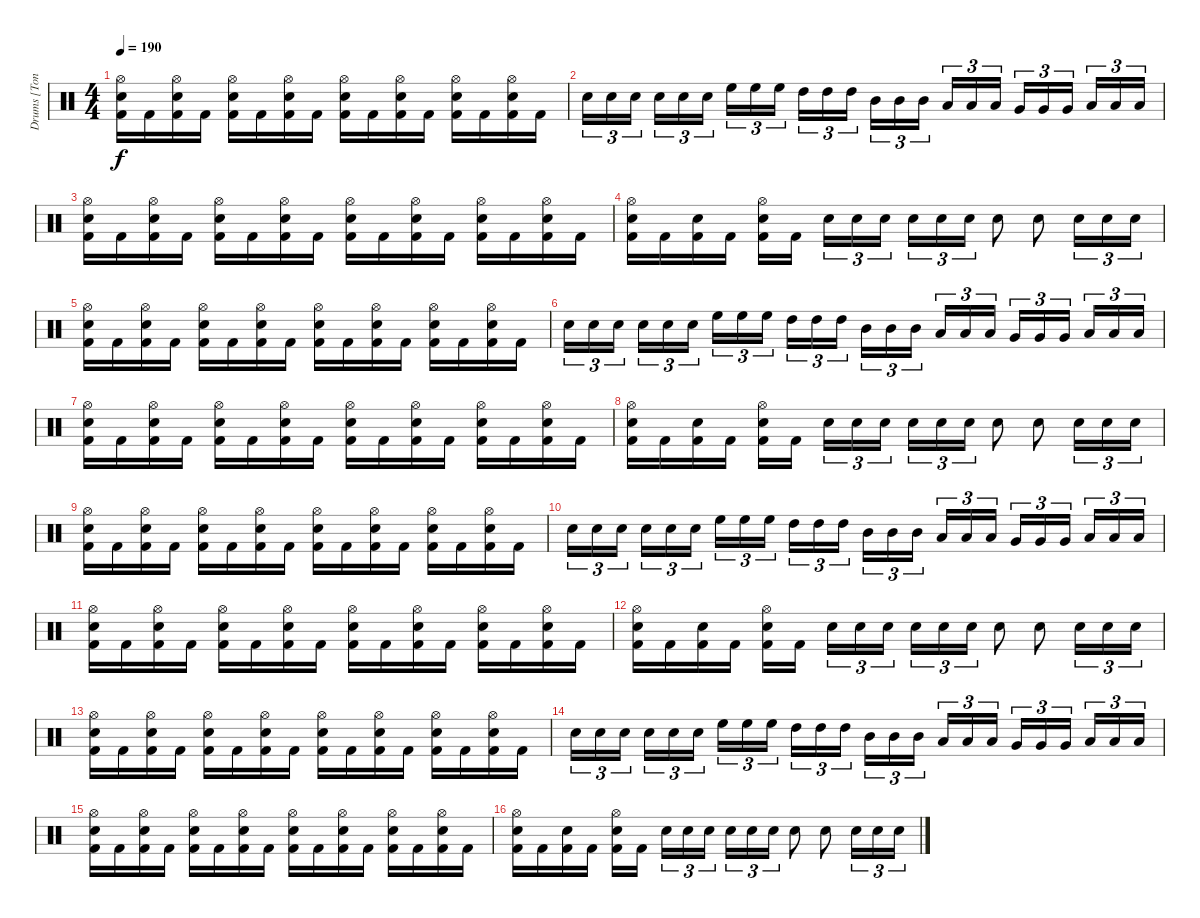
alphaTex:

\track ("Drums [Tony Laureano]" "Drums [Ton") {instrument percussion}
\staff {score}
\articulation defaults
\ts (4 4)
\tempo 190
\clef neutral
\ks c
("Hi-Hat (open)" "Electric Snare (hit)" "Kick (hit) 2").16{dy f} "Kick (hit) 2".16 ("Hi-Hat (open)" "Electric Snare (hit)" "Kick (hit) 2").16 "Kick (hit) 2".16 ("Hi-Hat (open)" "Electric Snare (hit)" "Kick (hit) 2").16 "Kick (hit) 2".16 ("Hi-Hat (open)" "Electric Snare (hit)" "Kick (hit) 2").16 "Kick (hit) 2".16 ("Hi-Hat (open)" "Electric Snare (hit)" "Kick (hit) 2").16 "Kick (hit) 2".16 ("Hi-Hat (open)" "Electric Snare (hit)" "Kick (hit) 2").16 "Kick (hit) 2".16 ("Hi-Hat (open)" "Electric Snare (hit)" "Kick (hit) 2").16 "Kick (hit) 2".16 ("Hi-Hat (open)" "Electric Snare (hit)" "Kick (hit) 2").16 "Kick (hit) 2".16 |
"Electric Snare (hit)".16{tu (3 2)} "Electric Snare (hit)".16{tu (3 2)} "Electric Snare (hit)".16{tu (3 2)} "Electric Snare (hit)".16{tu (3 2)} "Electric Snare (hit)".16{tu (3 2)} "Electric Snare (hit)".16{tu (3 2)} "High Floor Tom (hit)".16{tu (3 2)} "High Floor Tom (hit)".16{tu (3 2)} "High Floor Tom (hit)".16{tu (3 2)} "High Tom (hit)".16{tu (3 2)} "High Tom (hit)".16{tu (3 2)} "High Tom (hit)".16{tu (3 2)} "Mid Tom (hit)".16{tu (3 2)} "Mid Tom (hit)".16{tu (3 2)} "Mid Tom (hit)".16{tu (3 2)} "Low Tom (hit)".16{tu (3 2)} "Low Tom (hit)".16{tu (3 2)} "Low Tom (hit)".16{tu (3 2)} "Very Low Tom (hit)".16{tu (3 2)} "Very Low Tom (hit)".16{tu (3 2)} "Very Low Tom (hit)".16{tu (3 2)} "Low Floor Tom (hit)".16{tu (3 2)} "Low Floor Tom (hit)".16{tu (3 2)} "Low Floor Tom (hit)".16{tu (3 2)} |
("Hi-Hat (open)" "Electric Snare (hit)" "Kick (hit) 2").16 "Kick (hit) 2".16 ("Hi-Hat (open)" "Electric Snare (hit)" "Kick (hit) 2").16 "Kick (hit) 2".16 ("Hi-Hat (open)" "Electric Snare (hit)" "Kick (hit) 2").16 "Kick (hit) 2".16 ("Hi-Hat (open)" "Electric Snare (hit)" "Kick (hit) 2").16 "Kick (hit) 2".16 ("Hi-Hat (open)" "Electric Snare (hit)" "Kick (hit) 2").16 "Kick (hit) 2".16 ("Hi-Hat (open)" "Electric Snare (hit)" "Kick (hit) 2").16 "Kick (hit) 2".16 ("Hi-Hat (open)" "Electric Snare (hit)" "Kick (hit) 2").16 "Kick (hit) 2".16 ("Hi-Hat (open)" "Electric Snare (hit)" "Kick (hit) 2").16 "Kick (hit) 2".16 |
("Hi-Hat (open)" "Electric Snare (hit)" "Kick (hit) 2").16 "Kick (hit) 2".16 ("Electric Snare (hit)" "Kick (hit) 2").16 "Kick (hit) 2".16 ("Hi-Hat (open)" "Electric Snare (hit)" "Kick (hit) 2").16 "Kick (hit) 2".16 "Electric Snare (hit)".16{tu (3 2)} "Electric Snare (hit)".16{tu (3 2)} "Electric Snare (hit)".16{tu (3 2)} "Electric Snare (hit)".16{tu (3 2)} "Electric Snare (hit)".16{tu (3 2)} "Electric Snare (hit)".16{tu (3 2)} "Electric Snare (hit)".8 "Electric Snare (hit)".8 "Electric Snare (hit)".16{tu (3 2)} "Electric Snare (hit)".16{tu (3 2)} "Electric Snare (hit)".16{tu (3 2)} |
("Hi-Hat (open)" "Electric Snare (hit)" "Kick (hit) 2").16 "Kick (hit) 2".16 ("Hi-Hat (open)" "Electric Snare (hit)" "Kick (hit) 2").16 "Kick (hit) 2".16 ("Hi-Hat (open)" "Electric Snare (hit)" "Kick (hit) 2").16 "Kick (hit) 2".16 ("Hi-Hat (open)" "Electric Snare (hit)" "Kick (hit) 2").16 "Kick (hit) 2".16 ("Hi-Hat (open)" "Electric Snare (hit)" "Kick (hit) 2").16 "Kick (hit) 2".16 ("Hi-Hat (open)" "Electric Snare (hit)" "Kick (hit) 2").16 "Kick (hit) 2".16 ("Hi-Hat (open)" "Electric Snare (hit)" "Kick (hit) 2").16 "Kick (hit) 2".16 ("Hi-Hat (open)" "Electric Snare (hit)" "Kick (hit) 2").16 "Kick (hit) 2".16 |
"Electric Snare (hit)".16{tu (3 2)} "Electric Snare (hit)".16{tu (3 2)} "Electric Snare (hit)".16{tu (3 2)} "Electric Snare (hit)".16{tu (3 2)} "Electric Snare (hit)".16{tu (3 2)} "Electric Snare (hit)".16{tu (3 2)} "High Floor Tom (hit)".16{tu (3 2)} "High Floor Tom (hit)".16{tu (3 2)} "High Floor Tom (hit)".16{tu (3 2)} "High Tom (hit)".16{tu (3 2)} "High Tom (hit)".16{tu (3 2)} "High Tom (hit)".16{tu (3 2)} "Mid Tom (hit)".16{tu (3 2)} "Mid Tom (hit)".16{tu (3 2)} "Mid Tom (hit)".16{tu (3 2)} "Low Tom (hit)".16{tu (3 2)} "Low Tom (hit)".16{tu (3 2)} "Low Tom (hit)".16{tu (3 2)} "Very Low Tom (hit)".16{tu (3 2)} "Very Low Tom (hit)".16{tu (3 2)} "Very Low Tom (hit)".16{tu (3 2)} "Low Floor Tom (hit)".16{tu (3 2)} "Low Floor Tom (hit)".16{tu (3 2)} "Low Floor Tom (hit)".16{tu (3 2)} |
("Hi-Hat (open)" "Electric Snare (hit)" "Kick (hit) 2").16 "Kick (hit) 2".16 ("Hi-Hat (open)" "Electric Snare (hit)" "Kick (hit) 2").16 "Kick (hit) 2".16 ("Hi-Hat (open)" "Electric Snare (hit)" "Kick (hit) 2").16 "Kick (hit) 2".16 ("Hi-Hat (open)" "Electric Snare (hit)" "Kick (hit) 2").16 "Kick (hit) 2".16 ("Hi-Hat (open)" "Electric Snare (hit)" "Kick (hit) 2").16 "Kick (hit) 2".16 ("Hi-Hat (open)" "Electric Snare (hit)" "Kick (hit) 2").16 "Kick (hit) 2".16 ("Hi-Hat (open)" "Electric Snare (hit)" "Kick (hit) 2").16 "Kick (hit) 2".16 ("Hi-Hat (open)" "Electric Snare (hit)" "Kick (hit) 2").16 "Kick (hit) 2".16 |
("Hi-Hat (open)" "Electric Snare (hit)" "Kick (hit) 2").16 "Kick (hit) 2".16 ("Electric Snare (hit)" "Kick (hit) 2").16 "Kick (hit) 2".16 ("Hi-Hat (open)" "Electric Snare (hit)" "Kick (hit) 2").16 "Kick (hit) 2".16 "Electric Snare (hit)".16{tu (3 2)} "Electric Snare (hit)".16{tu (3 2)} "Electric Snare (hit)".16{tu (3 2)} "Electric Snare (hit)".16{tu (3 2)} "Electric Snare (hit)".16{tu (3 2)} "Electric Snare (hit)".16{tu (3 2)} "Electric Snare (hit)".8 "Electric Snare (hit)".8 "Electric Snare (hit)".16{tu (3 2)} "Electric Snare (hit)".16{tu (3 2)} "Electric Snare (hit)".16{tu (3 2)} |
("Hi-Hat (open)" "Electric Snare (hit)" "Kick (hit) 2").16 "Kick (hit) 2".16 ("Hi-Hat (open)" "Electric Snare (hit)" "Kick (hit) 2").16 "Kick (hit) 2".16 ("Hi-Hat (open)" "Electric Snare (hit)" "Kick (hit) 2").16 "Kick (hit) 2".16 ("Hi-Hat (open)" "Electric Snare (hit)" "Kick (hit) 2").16 "Kick (hit) 2".16 ("Hi-Hat (open)" "Electric Snare (hit)" "Kick (hit) 2").16 "Kick (hit) 2".16 ("Hi-Hat (open)" "Electric Snare (hit)" "Kick (hit) 2").16 "Kick (hit) 2".16 ("Hi-Hat (open)" "Electric Snare (hit)" "Kick (hit) 2").16 "Kick (hit) 2".16 ("Hi-Hat (open)" "Electric Snare (hit)" "Kick (hit) 2").16 "Kick (hit) 2".16 |
"Electric Snare (hit)".16{tu (3 2)} "Electric Snare (hit)".16{tu (3 2)} "Electric Snare (hit)".16{tu (3 2)} "Electric Snare (hit)".16{tu (3 2)} "Electric Snare (hit)".16{tu (3 2)} "Electric Snare (hit)".16{tu (3 2)} "High Floor Tom (hit)".16{tu (3 2)} "High Floor Tom (hit)".16{tu (3 2)} "High Floor Tom (hit)".16{tu (3 2)} "High Tom (hit)".16{tu (3 2)} "High Tom (hit)".16{tu (3 2)} "High Tom (hit)".16{tu (3 2)} "Mid Tom (hit)".16{tu (3 2)} "Mid Tom (hit)".16{tu (3 2)} "Mid Tom (hit)".16{tu (3 2)} "Low Tom (hit)".16{tu (3 2)} "Low Tom (hit)".16{tu (3 2)} "Low Tom (hit)".16{tu (3 2)} "Very Low Tom (hit)".16{tu (3 2)} "Very Low Tom (hit)".16{tu (3 2)} "Very Low Tom (hit)".16{tu (3 2)} "Low Floor Tom (hit)".16{tu (3 2)} "Low Floor Tom (hit)".16{tu (3 2)} "Low Floor Tom (hit)".16{tu (3 2)} |
("Hi-Hat (open)" "Electric Snare (hit)" "Kick (hit) 2").16 "Kick (hit) 2".16 ("Hi-Hat (open)" "Electric Snare (hit)" "Kick (hit) 2").16 "Kick (hit) 2".16 ("Hi-Hat (open)" "Electric Snare (hit)" "Kick (hit) 2").16 "Kick (hit) 2".16 ("Hi-Hat (open)" "Electric Snare (hit)" "Kick (hit) 2").16 "Kick (hit) 2".16 ("Hi-Hat (open)" "Electric Snare (hit)" "Kick (hit) 2").16 "Kick (hit) 2".16 ("Hi-Hat (open)" "Electric Snare (hit)" "Kick (hit) 2").16 "Kick (hit) 2".16 ("Hi-Hat (open)" "Electric Snare (hit)" "Kick (hit) 2").16 "Kick (hit) 2".16 ("Hi-Hat (open)" "Electric Snare (hit)" "Kick (hit) 2").16 "Kick (hit) 2".16 |
("Hi-Hat (open)" "Electric Snare (hit)" "Kick (hit) 2").16 "Kick (hit) 2".16 ("Electric Snare (hit)" "Kick (hit) 2").16 "Kick (hit) 2".16 ("Hi-Hat (open)" "Electric Snare (hit)" "Kick (hit) 2").16 "Kick (hit) 2".16 "Electric Snare (hit)".16{tu (3 2)} "Electric Snare (hit)".16{tu (3 2)} "Electric Snare (hit)".16{tu (3 2)} "Electric Snare (hit)".16{tu (3 2)} "Electric Snare (hit)".16{tu (3 2)} "Electric Snare (hit)".16{tu (3 2)} "Electric Snare (hit)".8 "Electric Snare (hit)".8 "Electric Snare (hit)".16{tu (3 2)} "Electric Snare (hit)".16{tu (3 2)} "Electric Snare (hit)".16{tu (3 2)} |
("Hi-Hat (open)" "Electric Snare (hit)" "Kick (hit) 2").16 "Kick (hit) 2".16 ("Hi-Hat (open)" "Electric Snare (hit)" "Kick (hit) 2").16 "Kick (hit) 2".16 ("Hi-Hat (open)" "Electric Snare (hit)" "Kick (hit) 2").16 "Kick (hit) 2".16 ("Hi-Hat (open)" "Electric Snare (hit)" "Kick (hit) 2").16 "Kick (hit) 2".16 ("Hi-Hat (open)" "Electric Snare (hit)" "Kick (hit) 2").16 "Kick (hit) 2".16 ("Hi-Hat (open)" "Electric Snare (hit)" "Kick (hit) 2").16 "Kick (hit) 2".16 ("Hi-Hat (open)" "Electric Snare (hit)" "Kick (hit) 2").16 "Kick (hit) 2".16 ("Hi-Hat (open)" "Electric Snare (hit)" "Kick (hit) 2").16 "Kick (hit) 2".16 |
"Electric Snare (hit)".16{tu (3 2)} "Electric Snare (hit)".16{tu (3 2)} "Electric Snare (hit)".16{tu (3 2)} "Electric Snare (hit)".16{tu (3 2)} "Electric Snare (hit)".16{tu (3 2)} "Electric Snare (hit)".16{tu (3 2)} "High Floor Tom (hit)".16{tu (3 2)} "High Floor Tom (hit)".16{tu (3 2)} "High Floor Tom (hit)".16{tu (3 2)} "High Tom (hit)".16{tu (3 2)} "High Tom (hit)".16{tu (3 2)} "High Tom (hit)".16{tu (3 2)} "Mid Tom (hit)".16{tu (3 2)} "Mid Tom (hit)".16{tu (3 2)} "Mid Tom (hit)".16{tu (3 2)} "Low Tom (hit)".16{tu (3 2)} "Low Tom (hit)".16{tu (3 2)} "Low Tom (hit)".16{tu (3 2)} "Very Low Tom (hit)".16{tu (3 2)} "Very Low Tom (hit)".16{tu (3 2)} "Very Low Tom (hit)".16{tu (3 2)} "Low Floor Tom (hit)".16{tu (3 2)} "Low Floor Tom (hit)".16{tu (3 2)} "Low Floor Tom (hit)".16{tu (3 2)} |
("Hi-Hat (open)" "Electric Snare (hit)" "Kick (hit) 2").16 "Kick (hit) 2".16 ("Hi-Hat (open)" "Electric Snare (hit)" "Kick (hit) 2").16 "Kick (hit) 2".16 ("Hi-Hat (open)" "Electric Snare (hit)" "Kick (hit) 2").16 "Kick (hit) 2".16 ("Hi-Hat (open)" "Electric Snare (hit)" "Kick (hit) 2").16 "Kick (hit) 2".16 ("Hi-Hat (open)" "Electric Snare (hit)" "Kick (hit) 2").16 "Kick (hit) 2".16 ("Hi-Hat (open)" "Electric Snare (hit)" "Kick (hit) 2").16 "Kick (hit) 2".16 ("Hi-Hat (open)" "Electric Snare (hit)" "Kick (hit) 2").16 "Kick (hit) 2".16 ("Hi-Hat (open)" "Electric Snare (hit)" "Kick (hit) 2").16 "Kick (hit) 2".16 |
("Hi-Hat (open)" "Electric Snare (hit)" "Kick (hit) 2").16 "Kick (hit) 2".16 ("Electric Snare (hit)" "Kick (hit) 2").16 "Kick (hit) 2".16 ("Hi-Hat (open)" "Electric Snare (hit)" "Kick (hit) 2").16 "Kick (hit) 2".16 "Electric Snare (hit)".16{tu (3 2)} "Electric Snare (hit)".16{tu (3 2)} "Electric Snare (hit)".16{tu (3 2)} "Electric Snare (hit)".16{tu (3 2)} "Electric Snare (hit)".16{tu (3 2)} "Electric Snare (hit)".16{tu (3 2)} "Electric Snare (hit)".8 "Electric Snare (hit)".8 "Electric Snare (hit)".16{tu (3 2)} "Electric Snare (hit)".16{tu (3 2)} "Electric Snare (hit)".16{tu (3 2)}
